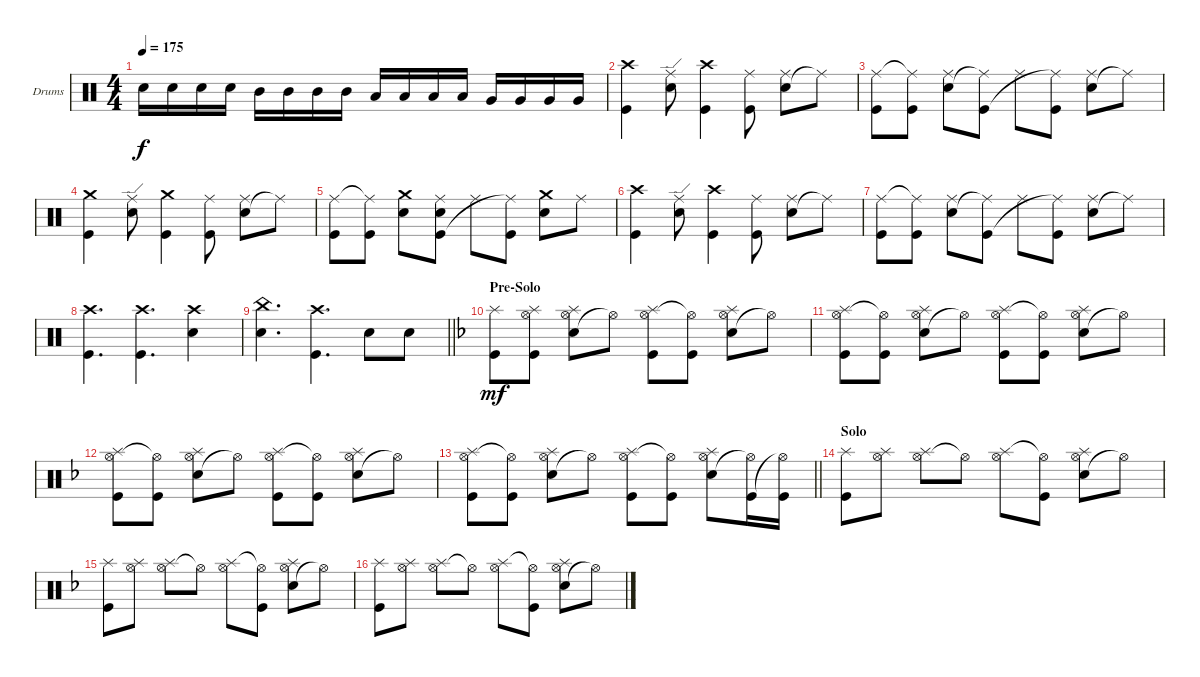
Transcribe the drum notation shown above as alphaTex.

\bracketExtendMode groupsimilarinstruments
\firstSystemTrackNameOrientation horizontal
\otherSystemsTrackNameOrientation horizontal
\track ("Drumkit" "Drums") {instrument percussion}
\staff {score}
\articulation defaults
\ts (4 4)
\tempo 175
\clef neutral
\ks c "Snare (hit) 2".16{dy f} "Snare (hit) 2".16 "Snare (hit) 2".16 "Snare (hit) 2".16 "Mid Tom (hit)".16 "Mid Tom (hit)".16 "Mid Tom (hit)".16 "Mid Tom (hit)".16 "Low Tom (hit)".16 "Low Tom (hit)".16 "Low Tom (hit)".16 "Low Tom (hit)".16 "Very Low Tom (hit)".16 "Very Low Tom (hit)".16 "Very Low Tom (hit)".16 "Very Low Tom (hit)".16
|
("Crash high (hit)" "Kick (hit)").4 ("Ride (edge)" "Snare (hit) 2").8 ("Kick (hit)" "Crash high (hit)").4 ("Kick (hit)" "Ride (middle)").8 ("Snare (hit) 2" "Ride (middle)").8 "Ride (middle)"{t}.8 |
("Kick (hit)" "Ride (middle)").8 ("Kick (hit)" "Ride (middle)"{t}).8 ("Snare (hit) 2" "Ride (middle)").8 ("Ride (middle)"{t} "Kick (hit)").8 "Ride (middle)".8 ("Kick (hit)" "Ride (middle)"{t}).8 ("Snare (hit) 2" "Ride (middle)").8 "Ride (middle)"{t}.8 |
("Kick (hit)" "Crash medium (hit)").4 ("Ride (edge)" "Snare (hit) 2").8 ("Kick (hit)" "Crash medium (hit)").4 ("Kick (hit)" "Ride (middle)").8 ("Snare (hit) 2" "Ride (middle)").8 "Ride (middle)"{t}.8 |
("Kick (hit)" "Ride (middle)").8 ("Kick (hit)" "Ride (middle)"{t}).8 ("Snare (hit) 2" "Crash medium (hit)").8 ("Ride (middle)" "Kick (hit)" "Snare (hit) 2").8 "Ride (middle)".8 ("Kick (hit)" "Ride (middle)"{t}).8 ("Snare (hit) 2" "Crash medium (hit)").8 "Ride (middle)".8 |
("Crash high (hit)" "Kick (hit)").4 ("Ride (edge)" "Snare (hit) 2").8 ("Kick (hit)" "Crash high (hit)").4 ("Kick (hit)" "Ride (middle)").8 ("Snare (hit) 2" "Ride (middle)").8 "Ride (middle)"{t}.8 |
("Kick (hit)" "Ride (middle)").8 ("Kick (hit)" "Ride (middle)"{t}).8 ("Snare (hit) 2" "Ride (middle)").8 ("Ride (middle)"{t} "Kick (hit)").8 "Ride (middle)".8 ("Kick (hit)" "Ride (middle)"{t}).8 ("Snare (hit) 2" "Ride (middle)").8 "Ride (middle)"{t}.8 |
("Crash high (hit)" "Kick (hit)").4{d} ("Kick (hit)" "Crash high (hit)").4{d} ("Snare (hit) 2" "Crash high (hit)").4 |
\barLineRight lightlight
("China (hit)" "Snare (hit) 2").4{d} ("Crash high (hit)" "Kick (hit)").4{d} "Snare (hit) 2".8 "Snare (hit) 2".8 |
\section ("" "Pre-Solo")
\ks f
("Kick (hit)" "Splash (hit)").8{dy mf} ("Kick (hit)" "Hi-Hat (open)" "Splash (hit)").8 ("Snare (hit) 2" "Hi-Hat (open)" "Splash (hit)").8 "Hi-Hat (open)"{t}.8 ("Kick (hit)" "Hi-Hat (open)" "Splash (hit)").8 ("Kick (hit)" "Hi-Hat (open)"{t}).8 ("Snare (hit) 2" "Hi-Hat (open)" "Splash (hit)").8 "Hi-Hat (open)"{t}.8 |
("Kick (hit)" "Hi-Hat (open)" "Splash (hit)").8 ("Kick (hit)" "Hi-Hat (open)"{t}).8 ("Snare (hit) 2" "Hi-Hat (open)" "Splash (hit)").8 "Hi-Hat (open)"{t}.8 ("Kick (hit)" "Hi-Hat (open)" "Splash (hit)").8 ("Kick (hit)" "Hi-Hat (open)"{t}).8 ("Snare (hit) 2" "Hi-Hat (open)" "Splash (hit)").8 "Hi-Hat (open)"{t}.8 |
("Kick (hit)" "Hi-Hat (open)" "Splash (hit)").8 ("Kick (hit)" "Hi-Hat (open)"{t}).8 ("Snare (hit) 2" "Hi-Hat (open)" "Splash (hit)").8 "Hi-Hat (open)"{t}.8 ("Kick (hit)" "Hi-Hat (open)" "Splash (hit)").8 ("Kick (hit)" "Hi-Hat (open)"{t}).8 ("Snare (hit) 2" "Hi-Hat (open)" "Splash (hit)").8 "Hi-Hat (open)"{t}.8 |
\barLineRight lightlight
("Kick (hit)" "Hi-Hat (open)" "Splash (hit)").8 ("Kick (hit)" "Hi-Hat (open)"{t}).8 ("Snare (hit) 2" "Hi-Hat (open)" "Splash (hit)").8 "Hi-Hat (open)"{t}.8 ("Kick (hit)" "Hi-Hat (open)" "Splash (hit)").8 ("Kick (hit)" "Hi-Hat (open)"{t}).8 ("Snare (hit) 2" "Hi-Hat (open)" "Splash (hit)").8 ("Hi-Hat (open)"{t} "Kick (hit)").16 ("Kick (hit)" "Hi-Hat (open)"{t}).16 |
\section ("" "Solo")
("Kick (hit)" "Splash (hit)").8 ("Hi-Hat (open)" "Splash (hit)").8 ("Hi-Hat (open)" "Splash (hit)").8 "Hi-Hat (open)"{t}.8 ("Hi-Hat (open)" "Splash (hit)").8 ("Kick (hit)" "Hi-Hat (open)"{t}).8 ("Snare (hit) 2" "Hi-Hat (open)" "Splash (hit)").8 "Hi-Hat (open)"{t}.8 |
("Kick (hit)" "Splash (hit)").8 ("Hi-Hat (open)" "Splash (hit)").8 ("Hi-Hat (open)" "Splash (hit)").8 "Hi-Hat (open)"{t}.8 ("Hi-Hat (open)" "Splash (hit)").8 ("Kick (hit)" "Hi-Hat (open)"{t}).8 ("Snare (hit) 2" "Hi-Hat (open)" "Splash (hit)").8 "Hi-Hat (open)"{t}.8 |
("Kick (hit)" "Splash (hit)").8 ("Hi-Hat (open)" "Splash (hit)").8 ("Hi-Hat (open)" "Splash (hit)").8 "Hi-Hat (open)"{t}.8 ("Hi-Hat (open)" "Splash (hit)").8 ("Kick (hit)" "Hi-Hat (open)"{t}).8 ("Snare (hit) 2" "Hi-Hat (open)" "Splash (hit)").8 "Hi-Hat (open)"{t}.8
